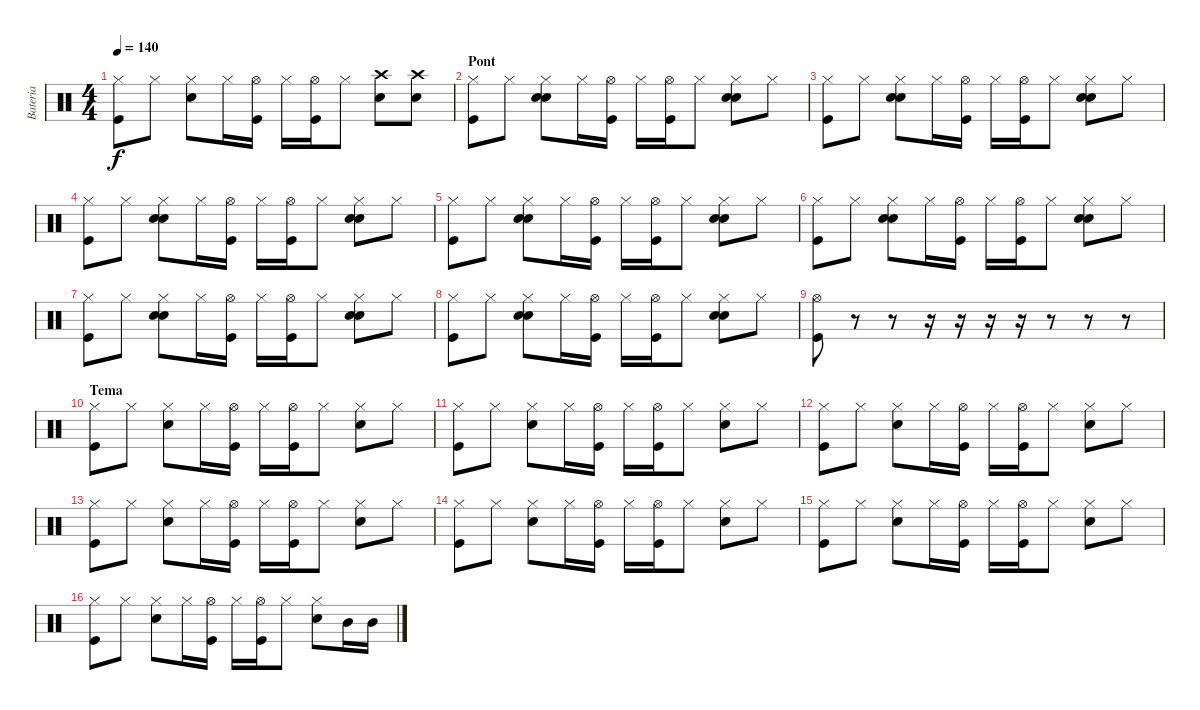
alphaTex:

\track ("Bateria" "Bateria") {instrument percussion}
\staff {score}
\articulation defaults
\ts (4 4)
\tempo 140
\clef neutral
\ks c
("Hi-Hat (closed)" "Kick (hit)").8{dy f} "Hi-Hat (closed)".8 ("Hi-Hat (closed)" "Electric Snare (hit)").8 "Hi-Hat (closed)".16 ("Hi-Hat (open)" "Kick (hit)").16 "Hi-Hat (closed)".16 ("Hi-Hat (open)" "Kick (hit)").16 "Hi-Hat (closed)".8 ("Crash high (hit)" "Electric Snare (hit)").8 ("Crash high (hit)" "Electric Snare (hit)").8 |
\section ("" "Pont")
("Hi-Hat (closed)" "Kick (hit)").8 "Hi-Hat (closed)".8 ("Hi-Hat (closed)" "Hand Clap (hit)" "Electric Snare (hit)").8 "Hi-Hat (closed)".16 ("Hi-Hat (open)" "Kick (hit)").16 "Hi-Hat (closed)".16 ("Hi-Hat (open)" "Kick (hit)").16 "Hi-Hat (closed)".8 ("Hi-Hat (closed)" "Hand Clap (hit)" "Electric Snare (hit)").8 "Hi-Hat (closed)".8 |
("Hi-Hat (closed)" "Kick (hit)").8 "Hi-Hat (closed)".8 ("Hi-Hat (closed)" "Hand Clap (hit)" "Electric Snare (hit)").8 "Hi-Hat (closed)".16 ("Hi-Hat (open)" "Kick (hit)").16 "Hi-Hat (closed)".16 ("Hi-Hat (open)" "Kick (hit)").16 "Hi-Hat (closed)".8 ("Hi-Hat (closed)" "Hand Clap (hit)" "Electric Snare (hit)").8 "Hi-Hat (closed)".8 |
("Hi-Hat (closed)" "Kick (hit)").8 "Hi-Hat (closed)".8 ("Hi-Hat (closed)" "Hand Clap (hit)" "Electric Snare (hit)").8 "Hi-Hat (closed)".16 ("Hi-Hat (open)" "Kick (hit)").16 "Hi-Hat (closed)".16 ("Hi-Hat (open)" "Kick (hit)").16 "Hi-Hat (closed)".8 ("Hi-Hat (closed)" "Hand Clap (hit)" "Electric Snare (hit)").8 "Hi-Hat (closed)".8 |
("Hi-Hat (closed)" "Kick (hit)").8 "Hi-Hat (closed)".8 ("Hi-Hat (closed)" "Hand Clap (hit)" "Electric Snare (hit)").8 "Hi-Hat (closed)".16 ("Hi-Hat (open)" "Kick (hit)").16 "Hi-Hat (closed)".16 ("Hi-Hat (open)" "Kick (hit)").16 "Hi-Hat (closed)".8 ("Hi-Hat (closed)" "Hand Clap (hit)" "Electric Snare (hit)").8 "Hi-Hat (closed)".8 |
("Hi-Hat (closed)" "Kick (hit)").8 "Hi-Hat (closed)".8 ("Hi-Hat (closed)" "Hand Clap (hit)" "Electric Snare (hit)").8 "Hi-Hat (closed)".16 ("Hi-Hat (open)" "Kick (hit)").16 "Hi-Hat (closed)".16 ("Hi-Hat (open)" "Kick (hit)").16 "Hi-Hat (closed)".8 ("Hi-Hat (closed)" "Hand Clap (hit)" "Electric Snare (hit)").8 "Hi-Hat (closed)".8 |
("Hi-Hat (closed)" "Kick (hit)").8 "Hi-Hat (closed)".8 ("Hi-Hat (closed)" "Hand Clap (hit)" "Electric Snare (hit)").8 "Hi-Hat (closed)".16 ("Hi-Hat (open)" "Kick (hit)").16 "Hi-Hat (closed)".16 ("Hi-Hat (open)" "Kick (hit)").16 "Hi-Hat (closed)".8 ("Hi-Hat (closed)" "Hand Clap (hit)" "Electric Snare (hit)").8 "Hi-Hat (closed)".8 |
("Hi-Hat (closed)" "Kick (hit)").8 "Hi-Hat (closed)".8 ("Hi-Hat (closed)" "Hand Clap (hit)" "Electric Snare (hit)").8 "Hi-Hat (closed)".16 ("Hi-Hat (open)" "Kick (hit)").16 "Hi-Hat (closed)".16 ("Hi-Hat (open)" "Kick (hit)").16 "Hi-Hat (closed)".8 ("Hi-Hat (closed)" "Hand Clap (hit)" "Electric Snare (hit)").8 "Hi-Hat (closed)".8 |
("Hi-Hat (open)" "Kick (hit)").8 r.8 r.8 r.16 r.16 r.16 r.16 r.8 r.8 r.8 |
\section ("" "Tema")
("Hi-Hat (closed)" "Kick (hit)").8 "Hi-Hat (closed)".8 ("Hi-Hat (closed)" "Electric Snare (hit)").8 "Hi-Hat (closed)".16 ("Hi-Hat (open)" "Kick (hit)").16 "Hi-Hat (closed)".16 ("Hi-Hat (open)" "Kick (hit)").16 "Hi-Hat (closed)".8 ("Hi-Hat (closed)" "Electric Snare (hit)").8 "Hi-Hat (closed)".8 |
("Hi-Hat (closed)" "Kick (hit)").8 "Hi-Hat (closed)".8 ("Hi-Hat (closed)" "Electric Snare (hit)").8 "Hi-Hat (closed)".16 ("Hi-Hat (open)" "Kick (hit)").16 "Hi-Hat (closed)".16 ("Hi-Hat (open)" "Kick (hit)").16 "Hi-Hat (closed)".8 ("Hi-Hat (closed)" "Electric Snare (hit)").8 "Hi-Hat (closed)".8 |
("Hi-Hat (closed)" "Kick (hit)").8 "Hi-Hat (closed)".8 ("Hi-Hat (closed)" "Electric Snare (hit)").8 "Hi-Hat (closed)".16 ("Hi-Hat (open)" "Kick (hit)").16 "Hi-Hat (closed)".16 ("Hi-Hat (open)" "Kick (hit)").16 "Hi-Hat (closed)".8 ("Hi-Hat (closed)" "Electric Snare (hit)").8 "Hi-Hat (closed)".8 |
("Hi-Hat (closed)" "Kick (hit)").8 "Hi-Hat (closed)".8 ("Hi-Hat (closed)" "Electric Snare (hit)").8 "Hi-Hat (closed)".16 ("Hi-Hat (open)" "Kick (hit)").16 "Hi-Hat (closed)".16 ("Hi-Hat (open)" "Kick (hit)").16 "Hi-Hat (closed)".8 ("Hi-Hat (closed)" "Electric Snare (hit)").8 "Hi-Hat (closed)".8 |
("Hi-Hat (closed)" "Kick (hit)").8 "Hi-Hat (closed)".8 ("Hi-Hat (closed)" "Electric Snare (hit)").8 "Hi-Hat (closed)".16 ("Hi-Hat (open)" "Kick (hit)").16 "Hi-Hat (closed)".16 ("Hi-Hat (open)" "Kick (hit)").16 "Hi-Hat (closed)".8 ("Hi-Hat (closed)" "Electric Snare (hit)").8 "Hi-Hat (closed)".8 |
("Hi-Hat (closed)" "Kick (hit)").8 "Hi-Hat (closed)".8 ("Hi-Hat (closed)" "Electric Snare (hit)").8 "Hi-Hat (closed)".16 ("Hi-Hat (open)" "Kick (hit)").16 "Hi-Hat (closed)".16 ("Hi-Hat (open)" "Kick (hit)").16 "Hi-Hat (closed)".8 ("Hi-Hat (closed)" "Electric Snare (hit)").8 "Hi-Hat (closed)".8 |
("Hi-Hat (closed)" "Kick (hit)").8 "Hi-Hat (closed)".8 ("Hi-Hat (closed)" "Electric Snare (hit)").8 "Hi-Hat (closed)".16 ("Hi-Hat (open)" "Kick (hit)").16 "Hi-Hat (closed)".16 ("Hi-Hat (open)" "Kick (hit)").16 "Hi-Hat (closed)".8 ("Hi-Hat (closed)" "Electric Snare (hit)").8 "Mid Tom (hit)".16 "Mid Tom (hit)".16
